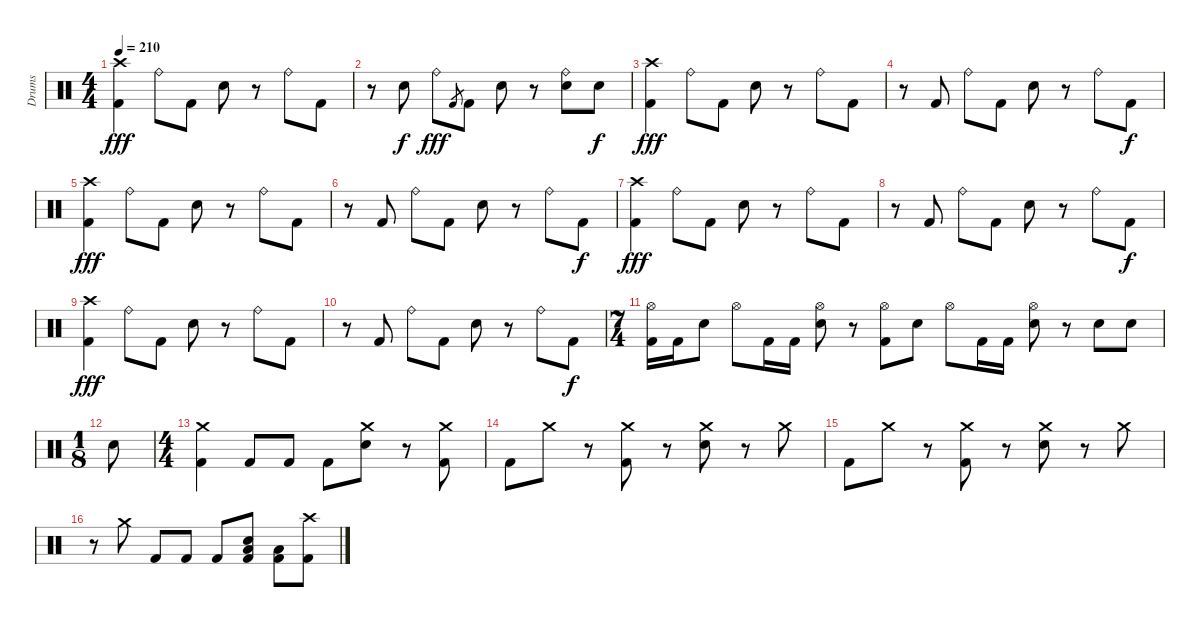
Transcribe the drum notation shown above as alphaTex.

\track ("Drums" "Drums") {instrument percussion}
\staff {score}
\articulation defaults
\ts (4 4)
\tempo 210
\clef neutral
\ks c
("Crash high (hit)" "Kick (hit) 2").4{dy fff} "Ride (bell)".8 "Kick (hit) 2".8 "Electric Snare (hit)".8 r.8 "Ride (bell)".8 "Kick (hit) 2".8 |
r.8 "Electric Snare (hit)".8{dy f} "Ride (bell)".8{dy fff} "Kick (hit) 2".8{gr} "Kick (hit) 2".8 "Electric Snare (hit)".8 r.8 ("Ride (bell)" "Electric Snare (hit)").8 "Electric Snare (hit)".8{dy f} |
("Crash high (hit)" "Kick (hit) 2").4{dy fff} "Ride (bell)".8 "Kick (hit) 2".8 "Electric Snare (hit)".8 r.8 "Ride (bell)".8 "Kick (hit) 2".8 |
r.8 "Kick (hit) 2".8 "Ride (bell)".8 "Kick (hit) 2".8 "Electric Snare (hit)".8 r.8 "Ride (bell)".8 "Kick (hit) 2".8{dy f} |
("Crash high (hit)" "Kick (hit) 2").4{dy fff} "Ride (bell)".8 "Kick (hit) 2".8 "Electric Snare (hit)".8 r.8 "Ride (bell)".8 "Kick (hit) 2".8 |
r.8 "Kick (hit) 2".8 "Ride (bell)".8 "Kick (hit) 2".8 "Electric Snare (hit)".8 r.8 "Ride (bell)".8 "Kick (hit) 2".8{dy f} |
("Crash high (hit)" "Kick (hit) 2").4{dy fff} "Ride (bell)".8 "Kick (hit) 2".8 "Electric Snare (hit)".8 r.8 "Ride (bell)".8 "Kick (hit) 2".8 |
r.8 "Kick (hit) 2".8 "Ride (bell)".8 "Kick (hit) 2".8 "Electric Snare (hit)".8 r.8 "Ride (bell)".8 "Kick (hit) 2".8{dy f} |
("Crash high (hit)" "Kick (hit) 2").4{dy fff} "Ride (bell)".8 "Kick (hit) 2".8 "Electric Snare (hit)".8 r.8 "Ride (bell)".8 "Kick (hit) 2".8 |
r.8 "Kick (hit) 2".8 "Ride (bell)".8 "Kick (hit) 2".8 "Electric Snare (hit)".8 r.8 "Ride (bell)".8 "Kick (hit) 2".8{dy f} |
\ts (7 4)
("Hi-Hat (open)" "Kick (hit) 2").16 "Kick (hit) 2".16 "Electric Snare (hit)".8 "Hi-Hat (open)".8 "Kick (hit) 2".16 "Kick (hit) 2".16 ("Hi-Hat (open)" "Electric Snare (hit)").8 r.8 ("Hi-Hat (open)" "Kick (hit) 2").8 "Electric Snare (hit)".8 "Hi-Hat (open)".8 "Kick (hit) 2".16 "Kick (hit) 2".16 ("Hi-Hat (open)" "Electric Snare (hit)").8 r.8 "Electric Snare (hit)".8 "Electric Snare (hit)".8 |
\ts (1 8)
"Electric Snare (hit)".8 |
\ts (4 4)
("Crash medium (hit)" "Kick (hit) 2").4 "Kick (hit) 2".8 "Kick (hit) 2".8 "Kick (hit) 2".8 ("Crash medium (hit)" "Electric Snare (hit)").8 r.8 ("Crash medium (hit)" "Kick (hit) 2").8 |
"Kick (hit) 2".8 "Crash medium (hit)".8 r.8 ("Crash medium (hit)" "Kick (hit) 2").8 r.8 ("Crash medium (hit)" "Electric Snare (hit)").8 r.8 "Crash medium (hit)".8 |
"Kick (hit) 2".8 "Crash medium (hit)".8 r.8 ("Crash medium (hit)" "Kick (hit) 2").8 r.8 ("Crash medium (hit)" "Electric Snare (hit)").8 r.8 "Crash medium (hit)".8 |
r.8 "Crash medium (hit)".8 "Kick (hit) 2".8 "Kick (hit) 2".8 "Kick (hit) 2".8 ("Electric Snare (hit)" "Low Floor Tom (hit)" "Kick (hit) 2").8 ("Low Floor Tom (hit)" "Kick (hit) 2").8 ("Crash high (hit)" "Kick (hit) 2").8
